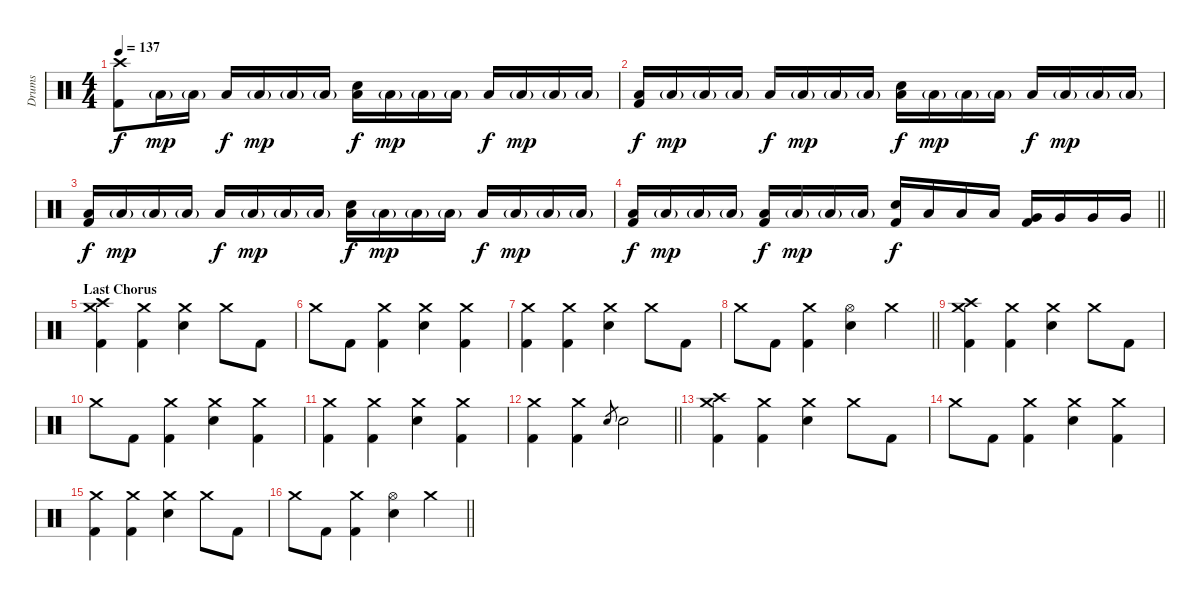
\track ("Drums" "Drums") {instrument percussion}
\staff {score}
\articulation defaults
\ts (4 4)
\tempo 137
\clef neutral
\ks c
("Crash high (hit)" "Kick (hit) 2").8{dy f} "Low Floor Tom (hit)"{g}.16{dy mp} "Low Floor Tom (hit)"{g}.16 "Low Floor Tom (hit)".16{dy f} "Low Floor Tom (hit)"{g}.16{dy mp} "Low Floor Tom (hit)"{g}.16 "Low Floor Tom (hit)"{g}.16 ("Electric Snare (hit)" "Low Floor Tom (hit)").16{dy f} "Low Floor Tom (hit)"{g}.16{dy mp} "Low Floor Tom (hit)"{g}.16 "Low Floor Tom (hit)"{g}.16 "Low Floor Tom (hit)".16{dy f} "Low Floor Tom (hit)"{g}.16{dy mp} "Low Floor Tom (hit)"{g}.16 "Low Floor Tom (hit)"{g}.16 |
("Low Floor Tom (hit)" "Kick (hit) 2").16{dy f} "Low Floor Tom (hit)"{g}.16{dy mp} "Low Floor Tom (hit)"{g}.16 "Low Floor Tom (hit)"{g}.16 "Low Floor Tom (hit)".16{dy f} "Low Floor Tom (hit)"{g}.16{dy mp} "Low Floor Tom (hit)"{g}.16 "Low Floor Tom (hit)"{g}.16 ("Electric Snare (hit)" "Low Floor Tom (hit)").16{dy f} "Low Floor Tom (hit)"{g}.16{dy mp} "Low Floor Tom (hit)"{g}.16 "Low Floor Tom (hit)"{g}.16 "Low Floor Tom (hit)".16{dy f} "Low Floor Tom (hit)"{g}.16{dy mp} "Low Floor Tom (hit)"{g}.16 "Low Floor Tom (hit)"{g}.16 |
("Low Floor Tom (hit)" "Kick (hit) 2").16{dy f} "Low Floor Tom (hit)"{g}.16{dy mp} "Low Floor Tom (hit)"{g}.16 "Low Floor Tom (hit)"{g}.16 "Low Floor Tom (hit)".16{dy f} "Low Floor Tom (hit)"{g}.16{dy mp} "Low Floor Tom (hit)"{g}.16 "Low Floor Tom (hit)"{g}.16 ("Electric Snare (hit)" "Low Floor Tom (hit)").16{dy f} "Low Floor Tom (hit)"{g}.16{dy mp} "Low Floor Tom (hit)"{g}.16 "Low Floor Tom (hit)"{g}.16 "Low Floor Tom (hit)".16{dy f} "Low Floor Tom (hit)"{g}.16{dy mp} "Low Floor Tom (hit)"{g}.16 "Low Floor Tom (hit)"{g}.16 |
\barLineRight lightlight
("Low Floor Tom (hit)" "Kick (hit) 2").16{dy f} "Low Floor Tom (hit)"{g}.16{dy mp} "Low Floor Tom (hit)"{g}.16 "Low Floor Tom (hit)"{g}.16 ("Low Floor Tom (hit)" "Kick (hit) 2").16{dy f} "Low Floor Tom (hit)"{g}.16{dy mp} "Low Floor Tom (hit)"{g}.16 "Low Floor Tom (hit)"{g}.16 ("Electric Snare (hit)" "Kick (hit) 2").16{dy f} "Low Floor Tom (hit)".16 "Low Floor Tom (hit)".16 "Low Floor Tom (hit)".16 ("Very Low Tom (hit)" "Kick (hit) 2").16 "Very Low Tom (hit)".16 "Very Low Tom (hit)".16 "Very Low Tom (hit)".16 |
\section ("" "Last Chorus")
("Crash high (hit)" "Crash medium (hit)" "Kick (hit) 2").4 ("Crash medium (hit)" "Kick (hit) 2").4 ("Crash medium (hit)" "Electric Snare (hit)").4 "Crash medium (hit)".8 "Kick (hit) 2".8 |
"Crash medium (hit)".8 "Kick (hit) 2".8 ("Crash medium (hit)" "Kick (hit) 2").4 ("Crash medium (hit)" "Electric Snare (hit)").4 ("Crash medium (hit)" "Kick (hit) 2").4 |
("Crash medium (hit)" "Kick (hit) 2").4 ("Crash medium (hit)" "Kick (hit) 2").4 ("Crash medium (hit)" "Electric Snare (hit)").4 "Crash medium (hit)".8 "Kick (hit) 2".8 |
\barLineRight lightlight "Crash medium (hit)".8 "Kick (hit) 2".8
("Crash medium (hit)" "Kick (hit) 2").4 ("Hi-Hat (open)" "Electric Snare (hit)").4 "Crash medium (hit)".4 |
("Crash high (hit)" "Crash medium (hit)" "Kick (hit) 2").4 ("Crash medium (hit)" "Kick (hit) 2").4 ("Crash medium (hit)" "Electric Snare (hit)").4 "Crash medium (hit)".8 "Kick (hit) 2".8 |
"Crash medium (hit)".8 "Kick (hit) 2".8 ("Crash medium (hit)" "Kick (hit) 2").4 ("Crash medium (hit)" "Electric Snare (hit)").4 ("Crash medium (hit)" "Kick (hit) 2").4 |
("Crash medium (hit)" "Kick (hit) 2").4 ("Crash medium (hit)" "Kick (hit) 2").4 ("Crash medium (hit)" "Electric Snare (hit)").4 ("Crash medium (hit)" "Kick (hit) 2").4 |
\barLineRight lightlight
("Crash medium (hit)" "Kick (hit) 2").4 ("Crash medium (hit)" "Kick (hit) 2").4 "Electric Snare (hit)".8{gr} "Electric Snare (hit)".2 |
("Crash high (hit)" "Crash medium (hit)" "Kick (hit) 2").4 ("Crash medium (hit)" "Kick (hit) 2").4 ("Crash medium (hit)" "Electric Snare (hit)").4 "Crash medium (hit)".8 "Kick (hit) 2".8 |
"Crash medium (hit)".8 "Kick (hit) 2".8 ("Crash medium (hit)" "Kick (hit) 2").4 ("Crash medium (hit)" "Electric Snare (hit)").4 ("Crash medium (hit)" "Kick (hit) 2").4 |
("Crash medium (hit)" "Kick (hit) 2").4 ("Crash medium (hit)" "Kick (hit) 2").4 ("Crash medium (hit)" "Electric Snare (hit)").4 "Crash medium (hit)".8 "Kick (hit) 2".8 |
\barLineRight lightlight "Crash medium (hit)".8 "Kick (hit) 2".8
("Crash medium (hit)" "Kick (hit) 2").4 ("Hi-Hat (open)" "Electric Snare (hit)").4 "Crash medium (hit)".4
